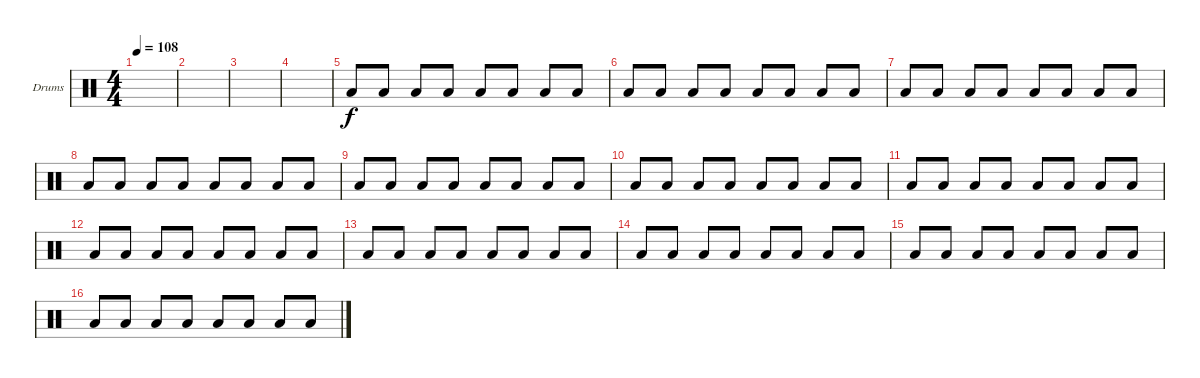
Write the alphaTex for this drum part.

\defaultSystemsLayout 4
\bracketExtendMode groupsimilarinstruments
\firstSystemTrackNameOrientation horizontal
\otherSystemsTrackNameOrientation horizontal
\track ("Drumkit" "Drums") {instrument percussion}
\staff {score}
\articulation defaults
\ts (4 4)
\tempo 108
\clef neutral
\ks c
|
|
|
|
"Low Tom (hit)".8 "Low Tom (hit)".8 "Low Tom (hit)".8 "Low Tom (hit)".8 "Low Tom (hit)".8 "Low Tom (hit)".8 "Low Tom (hit)".8 "Low Tom (hit)".8 |
"Low Tom (hit)".8 "Low Tom (hit)".8 "Low Tom (hit)".8 "Low Tom (hit)".8 "Low Tom (hit)".8 "Low Tom (hit)".8 "Low Tom (hit)".8 "Low Tom (hit)".8 |
"Low Tom (hit)".8 "Low Tom (hit)".8 "Low Tom (hit)".8 "Low Tom (hit)".8 "Low Tom (hit)".8 "Low Tom (hit)".8 "Low Tom (hit)".8 "Low Tom (hit)".8 |
"Low Tom (hit)".8 "Low Tom (hit)".8 "Low Tom (hit)".8 "Low Tom (hit)".8 "Low Tom (hit)".8 "Low Tom (hit)".8 "Low Tom (hit)".8 "Low Tom (hit)".8 |
"Low Tom (hit)".8 "Low Tom (hit)".8 "Low Tom (hit)".8 "Low Tom (hit)".8 "Low Tom (hit)".8 "Low Tom (hit)".8 "Low Tom (hit)".8 "Low Tom (hit)".8 |
"Low Tom (hit)".8 "Low Tom (hit)".8 "Low Tom (hit)".8 "Low Tom (hit)".8 "Low Tom (hit)".8 "Low Tom (hit)".8 "Low Tom (hit)".8 "Low Tom (hit)".8 |
"Low Tom (hit)".8 "Low Tom (hit)".8 "Low Tom (hit)".8 "Low Tom (hit)".8 "Low Tom (hit)".8 "Low Tom (hit)".8 "Low Tom (hit)".8 "Low Tom (hit)".8 |
"Low Tom (hit)".8 "Low Tom (hit)".8 "Low Tom (hit)".8 "Low Tom (hit)".8 "Low Tom (hit)".8 "Low Tom (hit)".8 "Low Tom (hit)".8 "Low Tom (hit)".8 |
"Low Tom (hit)".8 "Low Tom (hit)".8 "Low Tom (hit)".8 "Low Tom (hit)".8 "Low Tom (hit)".8 "Low Tom (hit)".8 "Low Tom (hit)".8 "Low Tom (hit)".8 |
"Low Tom (hit)".8 "Low Tom (hit)".8 "Low Tom (hit)".8 "Low Tom (hit)".8 "Low Tom (hit)".8 "Low Tom (hit)".8 "Low Tom (hit)".8 "Low Tom (hit)".8 |
"Low Tom (hit)".8 "Low Tom (hit)".8 "Low Tom (hit)".8 "Low Tom (hit)".8 "Low Tom (hit)".8 "Low Tom (hit)".8 "Low Tom (hit)".8 "Low Tom (hit)".8 |
"Low Tom (hit)".8 "Low Tom (hit)".8 "Low Tom (hit)".8 "Low Tom (hit)".8 "Low Tom (hit)".8 "Low Tom (hit)".8 "Low Tom (hit)".8 "Low Tom (hit)".8
